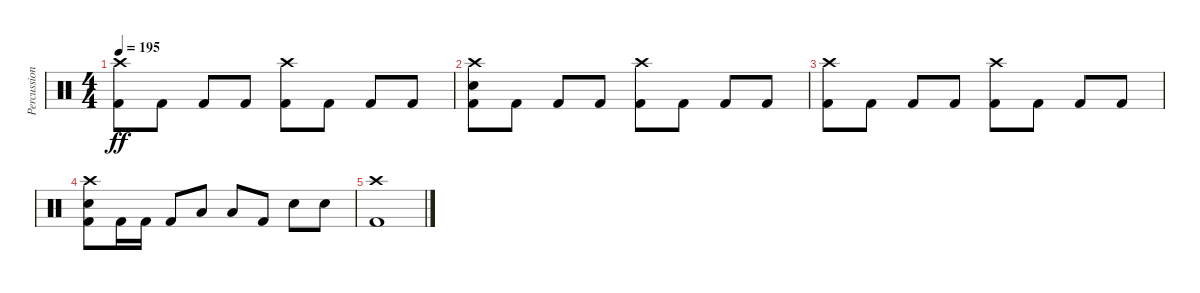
\track ("Percussion" "Percussion") {instrument percussion}
\staff {score}
\articulation defaults
\ts (4 4)
\tempo 195
\clef neutral
\ks c
("Crash high (hit)" "Kick (hit) 2").8{dy ff} "Kick (hit) 2".8 "Kick (hit) 2".8 "Kick (hit) 2".8 ("Crash high (hit)" "Kick (hit) 2").8 "Kick (hit) 2".8 "Kick (hit) 2".8 "Kick (hit) 2".8 |
("Crash high (hit)" "Electric Snare (hit)" "Kick (hit) 2").8 "Kick (hit) 2".8 "Kick (hit) 2".8 "Kick (hit) 2".8 ("Crash high (hit)" "Kick (hit) 2").8 "Kick (hit) 2".8 "Kick (hit) 2".8 "Kick (hit) 2".8 |
("Crash high (hit)" "Kick (hit) 2").8 "Kick (hit) 2".8 "Kick (hit) 2".8 "Kick (hit) 2".8 ("Crash high (hit)" "Kick (hit) 2").8 "Kick (hit) 2".8 "Kick (hit) 2".8 "Kick (hit) 2".8 |
("Crash high (hit)" "Electric Snare (hit)" "Kick (hit) 2").8 "Kick (hit) 2".16 "Kick (hit) 2".16 "Kick (hit) 2".8 "Low Tom (hit)".8 "Low Tom (hit)".8 "Kick (hit) 2".8 "Electric Snare (hit)".8 "Electric Snare (hit)".8 |
("Crash high (hit)" "Kick (hit) 2").1
